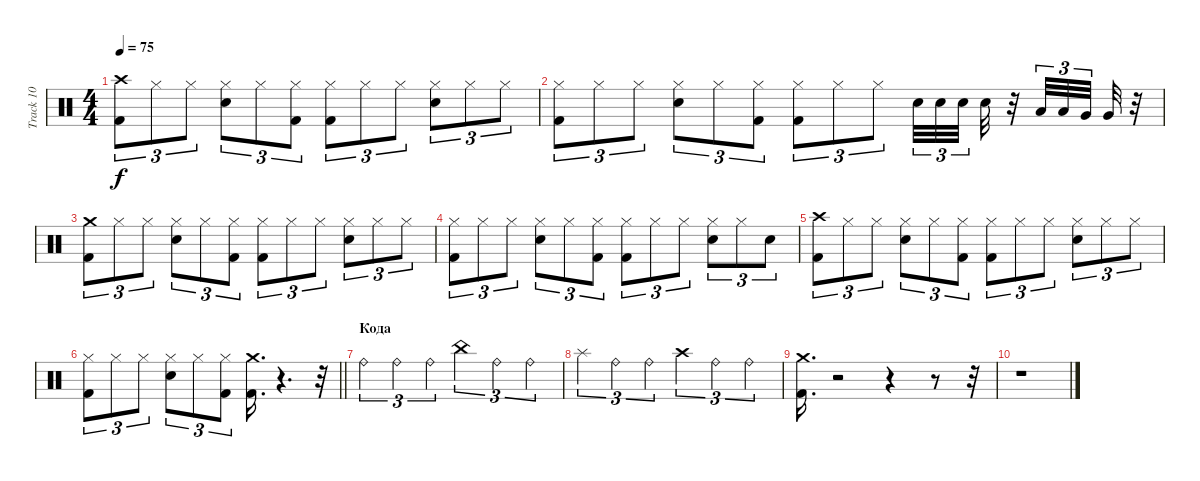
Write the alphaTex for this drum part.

\track ("Track 10" "Track 10") {instrument percussion}
\staff {score}
\articulation defaults
\ts (4 4)
\tempo 75
\clef neutral
\ks c
("Crash high (hit)" "Kick (hit) 2").8{tu (3 2) dy f} "Hi-Hat (closed)".8{tu (3 2)} "Hi-Hat (closed)".8{tu (3 2)} ("Snare (hit) 2" "Hi-Hat (closed)").8{tu (3 2)} "Hi-Hat (closed)".8{tu (3 2)} ("Kick (hit) 2" "Hi-Hat (closed)").8{tu (3 2)} ("Kick (hit) 2" "Hi-Hat (closed)").8{tu (3 2)} "Hi-Hat (closed)".8{tu (3 2)} "Hi-Hat (closed)".8{tu (3 2)} ("Snare (hit) 2" "Hi-Hat (closed)").8{tu (3 2)} "Hi-Hat (closed)".8{tu (3 2)} "Hi-Hat (closed)".8{tu (3 2)} |
("Hi-Hat (closed)" "Kick (hit) 2").8{tu (3 2)} "Hi-Hat (closed)".8{tu (3 2)} "Hi-Hat (closed)".8{tu (3 2)} ("Hi-Hat (closed)" "Snare (hit) 2").8{tu (3 2)} "Hi-Hat (closed)".8{tu (3 2)} ("Hi-Hat (closed)" "Kick (hit) 2").8{tu (3 2)} ("Hi-Hat (closed)" "Kick (hit) 2").8{tu (3 2)} "Hi-Hat (closed)".8{tu (3 2)} "Hi-Hat (closed)".8{tu (3 2)} "Snare (hit) 2".32{tu (3 2)} "Snare (hit) 2".32{tu (3 2)} "Snare (hit) 2".32{tu (3 2) beam splitsecondary} "Snare (hit) 2".32 r.32 "Low Tom (hit)".32{tu (3 2)} "Low Tom (hit)".32{tu (3 2)} "Very Low Tom (hit)".32{tu (3 2) beam splitsecondary} "Very Low Tom (hit)".32 r.32 |
("Crash medium (hit)" "Kick (hit) 2").8{tu (3 2)} "Hi-Hat (closed)".8{tu (3 2)} "Hi-Hat (closed)".8{tu (3 2)} ("Snare (hit) 2" "Hi-Hat (closed)").8{tu (3 2)} "Hi-Hat (closed)".8{tu (3 2)} ("Kick (hit) 2" "Hi-Hat (closed)").8{tu (3 2)} ("Kick (hit) 2" "Hi-Hat (closed)").8{tu (3 2)} "Hi-Hat (closed)".8{tu (3 2)} "Hi-Hat (closed)".8{tu (3 2)} ("Snare (hit) 2" "Hi-Hat (closed)").8{tu (3 2)} "Hi-Hat (closed)".8{tu (3 2)} "Hi-Hat (closed)".8{tu (3 2)} |
("Hi-Hat (closed)" "Kick (hit) 2").8{tu (3 2)} "Hi-Hat (closed)".8{tu (3 2)} "Hi-Hat (closed)".8{tu (3 2)} ("Hi-Hat (closed)" "Snare (hit) 2").8{tu (3 2)} "Hi-Hat (closed)".8{tu (3 2)} ("Hi-Hat (closed)" "Kick (hit) 2").8{tu (3 2)} ("Hi-Hat (closed)" "Kick (hit) 2").8{tu (3 2)} "Hi-Hat (closed)".8{tu (3 2)} "Hi-Hat (closed)".8{tu (3 2)} ("Hi-Hat (closed)" "Snare (hit) 2").8{tu (3 2)} "Hi-Hat (closed)".8{tu (3 2)} "Snare (hit) 2".8{tu (3 2)} |
("Crash high (hit)" "Kick (hit) 2").8{tu (3 2)} "Hi-Hat (closed)".8{tu (3 2)} "Hi-Hat (closed)".8{tu (3 2)} ("Snare (hit) 2" "Hi-Hat (closed)").8{tu (3 2)} "Hi-Hat (closed)".8{tu (3 2)} ("Kick (hit) 2" "Hi-Hat (closed)").8{tu (3 2)} ("Kick (hit) 2" "Hi-Hat (closed)").8{tu (3 2)} "Hi-Hat (closed)".8{tu (3 2)} "Hi-Hat (closed)".8{tu (3 2)} ("Snare (hit) 2" "Hi-Hat (closed)").8{tu (3 2)} "Hi-Hat (closed)".8{tu (3 2)} "Hi-Hat (closed)".8{tu (3 2)} |
\barLineRight lightlight
("Hi-Hat (closed)" "Kick (hit) 2").8{tu (3 2)} "Hi-Hat (closed)".8{tu (3 2)} "Hi-Hat (closed)".8{tu (3 2)} ("Hi-Hat (closed)" "Snare (hit) 2").8{tu (3 2)} "Hi-Hat (closed)".8{tu (3 2)} ("Hi-Hat (closed)" "Kick (hit) 2").8{tu (3 2)} ("Crash medium (hit)" "Kick (hit) 2").16{d} r.4{d} r.32 |
\section ("" "Кода")
"Ride (bell)".4{tu (3 2)} "Ride (bell)".4{tu (3 2)} "Ride (bell)".4{tu (3 2)} "China (hit)".4{tu (3 2)} "Ride (bell)".4{tu (3 2)} "Ride (bell)".4{tu (3 2)} |
"Splash (hit)".4{tu (3 2)} "Ride (bell)".4{tu (3 2)} "Ride (bell)".4{tu (3 2)} "Crash high (hit)".4{tu (3 2)} "Ride (bell)".4{tu (3 2)} "Ride (bell)".4{tu (3 2)} |
("Crash medium (hit)" "Kick (hit) 2").16{d} r.2 r.4 r.8 r.32 |
r.1
